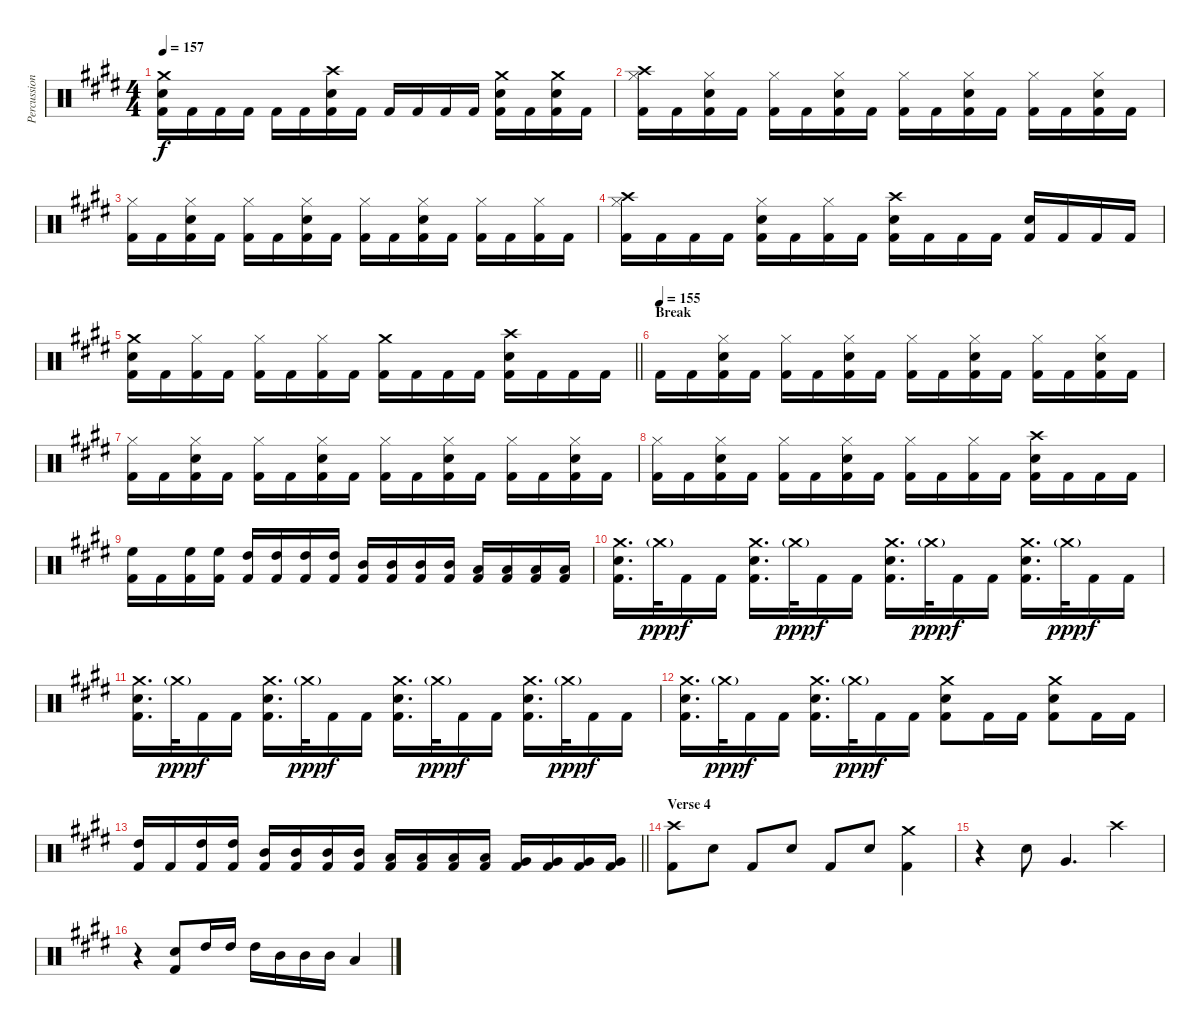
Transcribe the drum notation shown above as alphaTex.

\track ("Percussion (Thomen Stauch)" "Percussion") {instrument percussion}
\staff {score}
\articulation defaults
\ts (4 4)
\tempo 157
\clef neutral
\ks c#minor
("Crash medium (hit)" "Snare (hit) 2" "Kick (hit) 2").16{dy f} "Kick (hit) 2".16 "Kick (hit) 2".16 "Kick (hit) 2".16 "Kick (hit) 2".16 "Kick (hit) 2".16 ("Crash high (hit)" "Snare (hit) 2" "Kick (hit) 2").16 "Kick (hit) 2".16 "Kick (hit) 2".16 "Kick (hit) 2".16 "Kick (hit) 2".16 "Kick (hit) 2".16 ("Crash medium (hit)" "Snare (hit) 2" "Kick (hit) 2").16 "Kick (hit) 2".16 ("Crash medium (hit)" "Snare (hit) 2" "Kick (hit) 2").16 "Kick (hit) 2".16 |
("Crash high (hit)" "Hi-Hat (closed)" "Kick (hit) 2").16 "Kick (hit) 2".16 ("Hi-Hat (closed)" "Snare (hit) 2" "Kick (hit) 2").16 "Kick (hit) 2".16 ("Hi-Hat (closed)" "Kick (hit) 2").16 "Kick (hit) 2".16 ("Hi-Hat (closed)" "Snare (hit) 2" "Kick (hit) 2").16 "Kick (hit) 2".16 ("Hi-Hat (closed)" "Kick (hit) 2").16 "Kick (hit) 2".16 ("Hi-Hat (closed)" "Snare (hit) 2" "Kick (hit) 2").16 "Kick (hit) 2".16 ("Hi-Hat (closed)" "Kick (hit) 2").16 "Kick (hit) 2".16 ("Hi-Hat (closed)" "Snare (hit) 2" "Kick (hit) 2").16 "Kick (hit) 2".16 |
("Hi-Hat (closed)" "Kick (hit) 2").16 "Kick (hit) 2".16 ("Hi-Hat (closed)" "Snare (hit) 2" "Kick (hit) 2").16 "Kick (hit) 2".16 ("Hi-Hat (closed)" "Kick (hit) 2").16 "Kick (hit) 2".16 ("Hi-Hat (closed)" "Snare (hit) 2" "Kick (hit) 2").16 "Kick (hit) 2".16 ("Hi-Hat (closed)" "Kick (hit) 2").16 "Kick (hit) 2".16 ("Hi-Hat (closed)" "Snare (hit) 2" "Kick (hit) 2").16 "Kick (hit) 2".16 ("Hi-Hat (closed)" "Kick (hit) 2").16 "Kick (hit) 2".16 ("Hi-Hat (closed)" "Kick (hit) 2").16 "Kick (hit) 2".16 |
("Crash high (hit)" "Hi-Hat (closed)" "Kick (hit) 2").16 "Kick (hit) 2".16 "Kick (hit) 2".16 "Kick (hit) 2".16 ("Hi-Hat (closed)" "Snare (hit) 2" "Kick (hit) 2").16 "Kick (hit) 2".16 ("Hi-Hat (closed)" "Kick (hit) 2").16 "Kick (hit) 2".16 ("Crash high (hit)" "Snare (hit) 2" "Kick (hit) 2").16 "Kick (hit) 2".16 "Kick (hit) 2".16 "Kick (hit) 2".16 ("Snare (hit) 2" "Kick (hit) 2").16 "Kick (hit) 2".16 "Kick (hit) 2".16 "Kick (hit) 2".16 |
\barLineRight lightlight
("Crash medium (hit)" "Snare (hit) 2" "Kick (hit) 2").16 "Kick (hit) 2".16 ("Hi-Hat (closed)" "Kick (hit) 2").16 "Kick (hit) 2".16 ("Hi-Hat (closed)" "Kick (hit) 2").16 "Kick (hit) 2".16 ("Hi-Hat (closed)" "Kick (hit) 2").16 "Kick (hit) 2".16 ("Crash medium (hit)" "Kick (hit) 2").16 "Kick (hit) 2".16 "Kick (hit) 2".16 "Kick (hit) 2".16 ("Crash high (hit)" "Snare (hit) 2" "Kick (hit) 2").16 "Kick (hit) 2".16 "Kick (hit) 2".16 "Kick (hit) 2".16 |
\section ("" "Break")
\tempo (155)
"Kick (hit) 2".16 "Kick (hit) 2".16 ("Hi-Hat (closed)" "Snare (hit) 2" "Kick (hit) 2").16 "Kick (hit) 2".16 ("Hi-Hat (closed)" "Kick (hit) 2").16 "Kick (hit) 2".16 ("Hi-Hat (closed)" "Snare (hit) 2" "Kick (hit) 2").16 "Kick (hit) 2".16 ("Hi-Hat (closed)" "Kick (hit) 2").16 "Kick (hit) 2".16 ("Hi-Hat (closed)" "Snare (hit) 2" "Kick (hit) 2").16 "Kick (hit) 2".16 ("Hi-Hat (closed)" "Kick (hit) 2").16 "Kick (hit) 2".16 ("Hi-Hat (closed)" "Snare (hit) 2" "Kick (hit) 2").16 "Kick (hit) 2".16 |
("Hi-Hat (closed)" "Kick (hit) 2").16 "Kick (hit) 2".16 ("Hi-Hat (closed)" "Snare (hit) 2" "Kick (hit) 2").16 "Kick (hit) 2".16 ("Hi-Hat (closed)" "Kick (hit) 2").16 "Kick (hit) 2".16 ("Hi-Hat (closed)" "Snare (hit) 2" "Kick (hit) 2").16 "Kick (hit) 2".16 ("Hi-Hat (closed)" "Kick (hit) 2").16 "Kick (hit) 2".16 ("Hi-Hat (closed)" "Snare (hit) 2" "Kick (hit) 2").16 "Kick (hit) 2".16 ("Hi-Hat (closed)" "Kick (hit) 2").16 "Kick (hit) 2".16 ("Hi-Hat (closed)" "Snare (hit) 2" "Kick (hit) 2").16 "Kick (hit) 2".16 |
("Hi-Hat (closed)" "Kick (hit) 2").16 "Kick (hit) 2".16 ("Hi-Hat (closed)" "Snare (hit) 2" "Kick (hit) 2").16 "Kick (hit) 2".16 ("Hi-Hat (closed)" "Kick (hit) 2").16 "Kick (hit) 2".16 ("Hi-Hat (closed)" "Snare (hit) 2" "Kick (hit) 2").16 "Kick (hit) 2".16 ("Hi-Hat (closed)" "Kick (hit) 2").16 "Kick (hit) 2".16 ("Hi-Hat (closed)" "Kick (hit) 2").16 "Kick (hit) 2".16 ("Crash high (hit)" "Snare (hit) 2" "Kick (hit) 2").16 "Kick (hit) 2".16 "Kick (hit) 2".16 "Kick (hit) 2".16 |
("High Floor Tom (hit)" "Kick (hit) 2").16 "Kick (hit) 2".16 ("High Floor Tom (hit)" "Kick (hit) 2").16 ("High Floor Tom (hit)" "Kick (hit) 2").16 ("High Tom (hit)" "Kick (hit) 2").16 ("High Tom (hit)" "Kick (hit) 2").16 ("High Tom (hit)" "Kick (hit) 2").16 ("High Tom (hit)" "Kick (hit) 2").16 ("Mid Tom (hit)" "Kick (hit) 2").16 ("Mid Tom (hit)" "Kick (hit) 2").16 ("Mid Tom (hit)" "Kick (hit) 2").16 ("Mid Tom (hit)" "Kick (hit) 2").16 ("Low Tom (hit)" "Kick (hit) 2").16 ("Low Tom (hit)" "Kick (hit) 2").16 ("Low Tom (hit)" "Kick (hit) 2").16 ("Low Tom (hit)" "Kick (hit) 2").16 |
("Crash medium (hit)" "Snare (hit) 2" "Kick (hit) 2").16{d} "Crash medium (hit)"{g}.32{dy ppp volume 0} "Kick (hit) 2".16{dy f volume 13} "Kick (hit) 2".16 ("Crash medium (hit)" "Snare (hit) 2" "Kick (hit) 2").16{d} "Crash medium (hit)"{g}.32{dy ppp volume 0} "Kick (hit) 2".16{dy f volume 13} "Kick (hit) 2".16 ("Crash medium (hit)" "Snare (hit) 2" "Kick (hit) 2").16{d} "Crash medium (hit)"{g}.32{dy ppp volume 0} "Kick (hit) 2".16{dy f volume 13} "Kick (hit) 2".16 ("Crash medium (hit)" "Snare (hit) 2" "Kick (hit) 2").16{d} "Crash medium (hit)"{g}.32{dy ppp volume 0} "Kick (hit) 2".16{dy f volume 13} "Kick (hit) 2".16 |
("Crash medium (hit)" "Snare (hit) 2" "Kick (hit) 2").16{d} "Crash medium (hit)"{g}.32{dy ppp volume 0} "Kick (hit) 2".16{dy f volume 13} "Kick (hit) 2".16 ("Crash medium (hit)" "Snare (hit) 2" "Kick (hit) 2").16{d} "Crash medium (hit)"{g}.32{dy ppp volume 0} "Kick (hit) 2".16{dy f volume 13} "Kick (hit) 2".16 ("Crash medium (hit)" "Snare (hit) 2" "Kick (hit) 2").16{d} "Crash medium (hit)"{g}.32{dy ppp volume 0} "Kick (hit) 2".16{dy f volume 13} "Kick (hit) 2".16 ("Crash medium (hit)" "Snare (hit) 2" "Kick (hit) 2").16{d} "Crash medium (hit)"{g}.32{dy ppp volume 0} "Kick (hit) 2".16{dy f volume 13} "Kick (hit) 2".16 |
("Crash medium (hit)" "Snare (hit) 2" "Kick (hit) 2").16{d} "Crash medium (hit)"{g}.32{dy ppp volume 0} "Kick (hit) 2".16{dy f volume 13} "Kick (hit) 2".16 ("Crash medium (hit)" "Snare (hit) 2" "Kick (hit) 2").16{d} "Crash medium (hit)"{g}.32{dy ppp volume 0} "Kick (hit) 2".16{dy f volume 13} "Kick (hit) 2".16 ("Crash medium (hit)" "Snare (hit) 2" "Kick (hit) 2").8 "Kick (hit) 2".16 "Kick (hit) 2".16 ("Crash medium (hit)" "Snare (hit) 2" "Kick (hit) 2").8 "Kick (hit) 2".16 "Kick (hit) 2".16 |
\barLineRight lightlight
("High Tom (hit)" "Kick (hit) 2").16 "Kick (hit) 2".16 ("High Tom (hit)" "Kick (hit) 2").16 ("High Tom (hit)" "Kick (hit) 2").16 ("Mid Tom (hit)" "Kick (hit) 2").16 ("Mid Tom (hit)" "Kick (hit) 2").16 ("Mid Tom (hit)" "Kick (hit) 2").16 ("Mid Tom (hit)" "Kick (hit) 2").16 ("Low Tom (hit)" "Kick (hit) 2").16 ("Low Tom (hit)" "Kick (hit) 2").16 ("Low Tom (hit)" "Kick (hit) 2").16 ("Low Tom (hit)" "Kick (hit) 2").16 ("Very Low Tom (hit)" "Kick (hit) 2").16 ("Very Low Tom (hit)" "Kick (hit) 2").16 ("Very Low Tom (hit)" "Kick (hit) 2").16 ("Very Low Tom (hit)" "Kick (hit) 2").16 |
\section ("" "Verse 4")
("Crash high (hit)" "Kick (hit) 2").8 "Snare (hit) 2".8 "Kick (hit) 2".8 "Snare (hit) 2".8 "Kick (hit) 2".8 "Snare (hit) 2".8 ("Crash medium (hit)" "Kick (hit) 2").4 |
r.4 "Snare (hit) 2".8 "Very Low Tom (hit)".4{d} "Crash high (hit)".4 |
r.4 ("Snare (hit) 2" "Kick (hit) 2").8 "High Tom (hit)".16 "High Tom (hit)".16 "High Tom (hit)".16 "Mid Tom (hit)".16 "Mid Tom (hit)".16 "Mid Tom (hit)".16 "Low Tom (hit)".4
